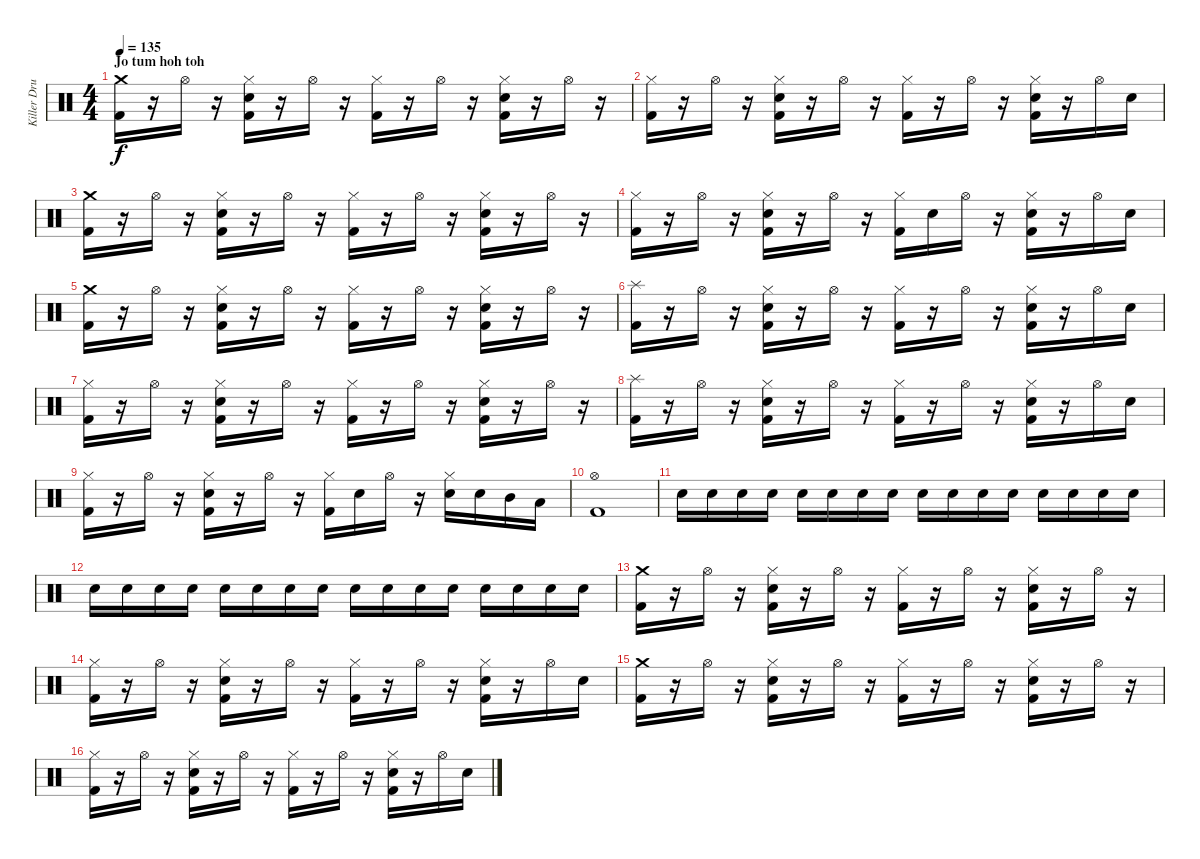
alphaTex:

\track ("Killer Drummer" "Killer Dru") {instrument percussion}
\staff {score}
\articulation defaults
\ts (4 4)
\section ("" "Jo tum hoh toh")
\tempo 135
\clef neutral
\ks c
("Crash medium (hit)" "Kick (hit) 2").16{dy f} r.16 "Hi-Hat (open)".16 r.16 ("Hi-Hat (closed)" "Electric Snare (hit)" "Kick (hit) 2").16 r.16 "Hi-Hat (open)".16 r.16 ("Hi-Hat (closed)" "Kick (hit) 2").16 r.16 "Hi-Hat (open)".16 r.16 ("Hi-Hat (closed)" "Electric Snare (hit)" "Kick (hit) 2").16 r.16 "Hi-Hat (open)".16 r.16 |
("Hi-Hat (closed)" "Kick (hit) 2").16 r.16 "Hi-Hat (open)".16 r.16 ("Hi-Hat (closed)" "Electric Snare (hit)" "Kick (hit) 2").16 r.16 "Hi-Hat (open)".16 r.16 ("Hi-Hat (closed)" "Kick (hit) 2").16 r.16 "Hi-Hat (open)".16 r.16 ("Hi-Hat (closed)" "Electric Snare (hit)" "Kick (hit) 2").16 r.16 "Hi-Hat (open)".16 "Electric Snare (hit)".16 |
("Crash medium (hit)" "Kick (hit) 2").16 r.16 "Hi-Hat (open)".16 r.16 ("Hi-Hat (closed)" "Electric Snare (hit)" "Kick (hit) 2").16 r.16 "Hi-Hat (open)".16 r.16 ("Hi-Hat (closed)" "Kick (hit) 2").16 r.16 "Hi-Hat (open)".16 r.16 ("Hi-Hat (closed)" "Electric Snare (hit)" "Kick (hit) 2").16 r.16 "Hi-Hat (open)".16 r.16 |
("Hi-Hat (closed)" "Kick (hit) 2").16 r.16 "Hi-Hat (open)".16 r.16 ("Hi-Hat (closed)" "Electric Snare (hit)" "Kick (hit) 2").16 r.16 "Hi-Hat (open)".16 r.16 ("Hi-Hat (closed)" "Kick (hit) 2").16 "Electric Snare (hit)".16 "Hi-Hat (open)".16 r.16 ("Hi-Hat (closed)" "Electric Snare (hit)" "Kick (hit) 2").16 r.16 "Hi-Hat (open)".16 "Electric Snare (hit)".16 |
("Crash medium (hit)" "Kick (hit) 2").16 r.16 "Hi-Hat (open)".16 r.16 ("Hi-Hat (closed)" "Electric Snare (hit)" "Kick (hit) 2").16 r.16 "Hi-Hat (open)".16 r.16 ("Hi-Hat (closed)" "Kick (hit) 2").16 r.16 "Hi-Hat (open)".16 r.16 ("Hi-Hat (closed)" "Electric Snare (hit)" "Kick (hit) 2").16 r.16 "Hi-Hat (open)".16 r.16 |
("Splash (hit)" "Kick (hit) 2").16 r.16 "Hi-Hat (open)".16 r.16 ("Hi-Hat (closed)" "Electric Snare (hit)" "Kick (hit) 2").16 r.16 "Hi-Hat (open)".16 r.16 ("Hi-Hat (closed)" "Kick (hit) 2").16 r.16 "Hi-Hat (open)".16 r.16 ("Hi-Hat (closed)" "Electric Snare (hit)" "Kick (hit) 2").16 r.16 "Hi-Hat (open)".16 "Electric Snare (hit)".16 |
("Hi-Hat (closed)" "Kick (hit) 2").16 r.16 "Hi-Hat (open)".16 r.16 ("Hi-Hat (closed)" "Electric Snare (hit)" "Kick (hit) 2").16 r.16 "Hi-Hat (open)".16 r.16 ("Hi-Hat (closed)" "Kick (hit) 2").16 r.16 "Hi-Hat (open)".16 r.16 ("Hi-Hat (closed)" "Electric Snare (hit)" "Kick (hit) 2").16 r.16 "Hi-Hat (open)".16 r.16 |
("Splash (hit)" "Kick (hit) 2").16 r.16 "Hi-Hat (open)".16 r.16 ("Hi-Hat (closed)" "Electric Snare (hit)" "Kick (hit) 2").16 r.16 "Hi-Hat (open)".16 r.16 ("Hi-Hat (closed)" "Kick (hit) 2").16 r.16 "Hi-Hat (open)".16 r.16 ("Hi-Hat (closed)" "Electric Snare (hit)" "Kick (hit) 2").16 r.16 "Hi-Hat (open)".16 "Electric Snare (hit)".16 |
("Hi-Hat (closed)" "Kick (hit) 2").16 r.16 "Hi-Hat (open)".16 r.16 ("Hi-Hat (closed)" "Electric Snare (hit)" "Kick (hit) 2").16 r.16 "Hi-Hat (open)".16 r.16 ("Hi-Hat (closed)" "Kick (hit) 2").16 "Electric Snare (hit)".16 "Hi-Hat (open)".16 r.16 ("Hi-Hat (closed)" "Electric Snare (hit)").16 "Electric Snare (hit)".16 "Mid Tom (hit)".16 "Low Tom (hit)".16 |
("Hi-Hat (open)" "Kick (hit) 2").1 |
"Electric Snare (hit)".16 "Electric Snare (hit)".16 "Electric Snare (hit)".16 "Electric Snare (hit)".16 "Electric Snare (hit)".16 "Electric Snare (hit)".16 "Electric Snare (hit)".16 "Electric Snare (hit)".16 "Electric Snare (hit)".16 "Electric Snare (hit)".16 "Electric Snare (hit)".16 "Electric Snare (hit)".16 "Electric Snare (hit)".16 "Electric Snare (hit)".16 "Electric Snare (hit)".16 "Electric Snare (hit)".16 |
"Electric Snare (hit)".16 "Electric Snare (hit)".16 "Electric Snare (hit)".16 "Electric Snare (hit)".16 "Electric Snare (hit)".16 "Electric Snare (hit)".16 "Electric Snare (hit)".16 "Electric Snare (hit)".16 "Electric Snare (hit)".16 "Electric Snare (hit)".16 "Electric Snare (hit)".16 "Electric Snare (hit)".16 "Electric Snare (hit)".16 "Electric Snare (hit)".16 "Electric Snare (hit)".16 "Electric Snare (hit)".16 |
("Crash medium (hit)" "Kick (hit) 2").16 r.16 "Hi-Hat (open)".16 r.16 ("Hi-Hat (closed)" "Electric Snare (hit)" "Kick (hit) 2").16 r.16 "Hi-Hat (open)".16 r.16 ("Hi-Hat (closed)" "Kick (hit) 2").16 r.16 "Hi-Hat (open)".16 r.16 ("Hi-Hat (closed)" "Electric Snare (hit)" "Kick (hit) 2").16 r.16 "Hi-Hat (open)".16 r.16 |
("Hi-Hat (closed)" "Kick (hit) 2").16 r.16 "Hi-Hat (open)".16 r.16 ("Hi-Hat (closed)" "Electric Snare (hit)" "Kick (hit) 2").16 r.16 "Hi-Hat (open)".16 r.16 ("Hi-Hat (closed)" "Kick (hit) 2").16 r.16 "Hi-Hat (open)".16 r.16 ("Hi-Hat (closed)" "Electric Snare (hit)" "Kick (hit) 2").16 r.16 "Hi-Hat (open)".16 "Electric Snare (hit)".16 |
("Crash medium (hit)" "Kick (hit) 2").16 r.16 "Hi-Hat (open)".16 r.16 ("Hi-Hat (closed)" "Electric Snare (hit)" "Kick (hit) 2").16 r.16 "Hi-Hat (open)".16 r.16 ("Hi-Hat (closed)" "Kick (hit) 2").16 r.16 "Hi-Hat (open)".16 r.16 ("Hi-Hat (closed)" "Electric Snare (hit)" "Kick (hit) 2").16 r.16 "Hi-Hat (open)".16 r.16 |
("Hi-Hat (closed)" "Kick (hit) 2").16 r.16 "Hi-Hat (open)".16 r.16 ("Hi-Hat (closed)" "Electric Snare (hit)" "Kick (hit) 2").16 r.16 "Hi-Hat (open)".16 r.16 ("Hi-Hat (closed)" "Kick (hit) 2").16 r.16 "Hi-Hat (open)".16 r.16 ("Hi-Hat (closed)" "Electric Snare (hit)" "Kick (hit) 2").16 r.16 "Hi-Hat (open)".16 "Electric Snare (hit)".16
